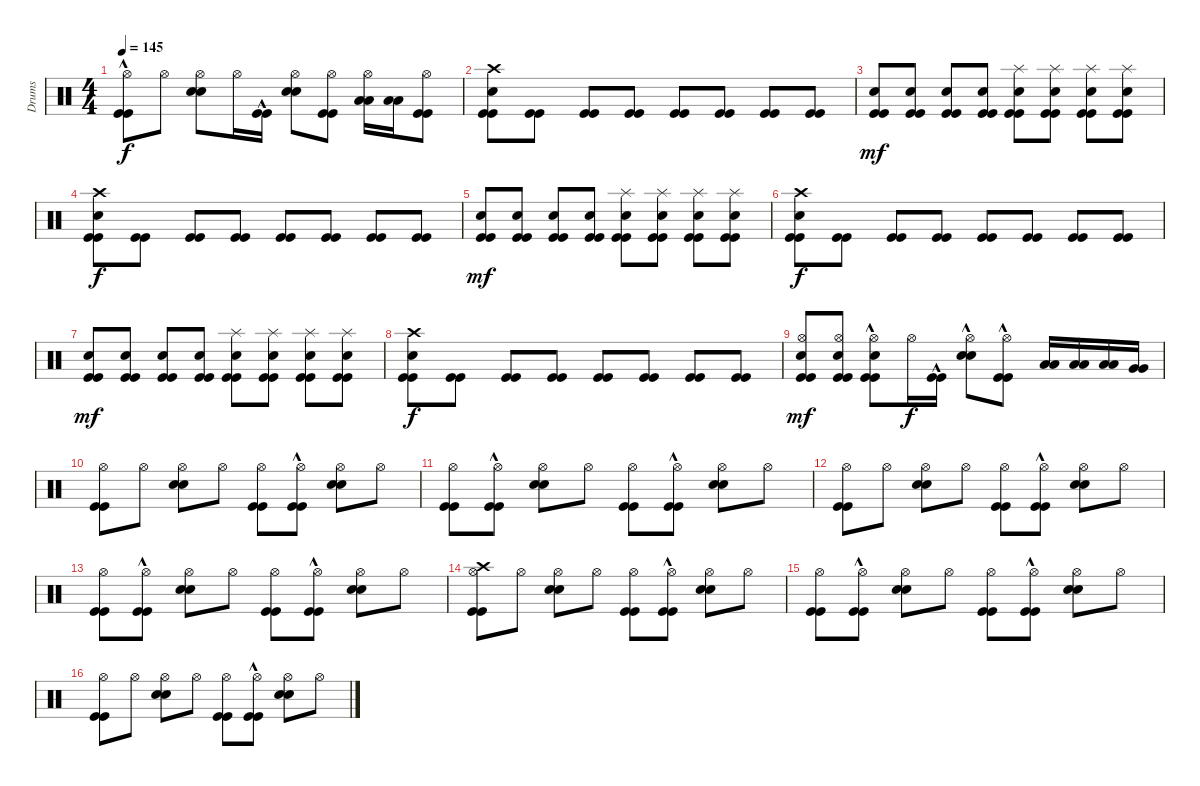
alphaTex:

\track ("Drums" "Drums") {instrument percussion}
\staff {score}
\articulation defaults
\ts (4 4)
\tempo 145
\clef neutral
\ks c
("Kick (hit)"{hac} "Kick (hit)"{hac} "Hi-Hat (open)").8{dy f} "Hi-Hat (open)".8 ("Snare (hit) 2" "Snare (hit) 2" "Hi-Hat (open)").8 "Hi-Hat (open)".16 ("Kick (hit)"{hac} "Kick (hit)"{hac}).16 ("Snare (hit) 2" "Snare (hit) 2" "Hi-Hat (open)").8 ("Kick (hit)" "Kick (hit)" "Hi-Hat (open)").8 ("Low Tom (hit)" "Low Tom (hit)" "Hi-Hat (open)").16 ("Low Tom (hit)" "Low Tom (hit)").16 ("Kick (hit)" "Kick (hit)" "Hi-Hat (open)").8 |
("Kick (hit)" "Kick (hit)" "Snare (hit) 2" "Crash high (hit)").8 ("Kick (hit)" "Kick (hit)").8 ("Kick (hit)" "Kick (hit)").8 ("Kick (hit)" "Kick (hit)").8 ("Kick (hit)" "Kick (hit)").8 ("Kick (hit)" "Kick (hit)").8 ("Kick (hit)" "Kick (hit)").8 ("Kick (hit)" "Kick (hit)").8 |
("Kick (hit)" "Kick (hit)" "Snare (hit) 2").8{dy mf} ("Kick (hit)" "Kick (hit)" "Snare (hit) 2").8 ("Kick (hit)" "Kick (hit)" "Snare (hit) 2").8 ("Kick (hit)" "Kick (hit)" "Snare (hit) 2").8 ("Kick (hit)" "Kick (hit)" "Snare (hit) 2" "Splash (hit)").8 ("Kick (hit)" "Kick (hit)" "Snare (hit) 2" "Splash (hit)").8 ("Kick (hit)" "Kick (hit)" "Snare (hit) 2" "Splash (hit)").8 ("Kick (hit)" "Kick (hit)" "Snare (hit) 2" "Splash (hit)").8 |
("Kick (hit)" "Kick (hit)" "Snare (hit) 2" "Crash high (hit)").8{dy f} ("Kick (hit)" "Kick (hit)").8 ("Kick (hit)" "Kick (hit)").8 ("Kick (hit)" "Kick (hit)").8 ("Kick (hit)" "Kick (hit)").8 ("Kick (hit)" "Kick (hit)").8 ("Kick (hit)" "Kick (hit)").8 ("Kick (hit)" "Kick (hit)").8 |
("Kick (hit)" "Kick (hit)" "Snare (hit) 2").8{dy mf} ("Kick (hit)" "Kick (hit)" "Snare (hit) 2").8 ("Kick (hit)" "Kick (hit)" "Snare (hit) 2").8 ("Kick (hit)" "Kick (hit)" "Snare (hit) 2").8 ("Kick (hit)" "Kick (hit)" "Snare (hit) 2" "Splash (hit)").8 ("Kick (hit)" "Kick (hit)" "Snare (hit) 2" "Splash (hit)").8 ("Kick (hit)" "Kick (hit)" "Snare (hit) 2" "Splash (hit)").8 ("Kick (hit)" "Kick (hit)" "Snare (hit) 2" "Splash (hit)").8 |
("Kick (hit)" "Kick (hit)" "Snare (hit) 2" "Crash high (hit)").8{dy f} ("Kick (hit)" "Kick (hit)").8 ("Kick (hit)" "Kick (hit)").8 ("Kick (hit)" "Kick (hit)").8 ("Kick (hit)" "Kick (hit)").8 ("Kick (hit)" "Kick (hit)").8 ("Kick (hit)" "Kick (hit)").8 ("Kick (hit)" "Kick (hit)").8 |
("Kick (hit)" "Kick (hit)" "Snare (hit) 2").8{dy mf} ("Kick (hit)" "Kick (hit)" "Snare (hit) 2").8 ("Kick (hit)" "Kick (hit)" "Snare (hit) 2").8 ("Kick (hit)" "Kick (hit)" "Snare (hit) 2").8 ("Kick (hit)" "Kick (hit)" "Snare (hit) 2" "Splash (hit)").8 ("Kick (hit)" "Kick (hit)" "Snare (hit) 2" "Splash (hit)").8 ("Kick (hit)" "Kick (hit)" "Snare (hit) 2" "Splash (hit)").8 ("Kick (hit)" "Kick (hit)" "Snare (hit) 2" "Splash (hit)").8 |
("Kick (hit)" "Kick (hit)" "Snare (hit) 2" "Crash high (hit)").8{dy f} ("Kick (hit)" "Kick (hit)").8 ("Kick (hit)" "Kick (hit)").8 ("Kick (hit)" "Kick (hit)").8 ("Kick (hit)" "Kick (hit)").8 ("Kick (hit)" "Kick (hit)").8 ("Kick (hit)" "Kick (hit)").8 ("Kick (hit)" "Kick (hit)").8 |
("Kick (hit)" "Kick (hit)" "Snare (hit) 2" "Hi-Hat (open)").8{dy mf} ("Kick (hit)" "Kick (hit)" "Snare (hit) 2" "Hi-Hat (open)").8 ("Kick (hit)"{hac} "Kick (hit)"{hac} "Snare (hit) 2" "Hi-Hat (open)").8 "Hi-Hat (open)".16{dy f} ("Kick (hit)"{hac} "Kick (hit)"{hac}).16 ("Snare (hit) 2"{hac} "Snare (hit) 2"{hac} "Hi-Hat (open)").8 ("Kick (hit)"{hac} "Kick (hit)"{hac} "Hi-Hat (open)"{hac}).8 ("Low Tom (hit)" "Low Tom (hit)").16 ("Low Tom (hit)" "Low Tom (hit)").16 ("Low Tom (hit)" "Low Tom (hit)").16 ("Very Low Tom (hit)" "Very Low Tom (hit)").16 |
("Kick (hit)" "Kick (hit)" "Hi-Hat (open)").8 "Hi-Hat (open)".8 ("Snare (hit) 2" "Snare (hit) 2" "Hi-Hat (open)").8 "Hi-Hat (open)".8 ("Kick (hit)" "Kick (hit)" "Hi-Hat (open)").8 ("Kick (hit)"{hac} "Kick (hit)"{hac} "Hi-Hat (open)").8 ("Snare (hit) 2" "Snare (hit) 2" "Hi-Hat (open)").8 "Hi-Hat (open)".8 |
("Kick (hit)" "Kick (hit)" "Hi-Hat (open)").8 ("Kick (hit)"{hac} "Kick (hit)"{hac} "Hi-Hat (open)").8 ("Snare (hit) 2" "Snare (hit) 2" "Hi-Hat (open)").8 "Hi-Hat (open)".8 ("Kick (hit)" "Kick (hit)" "Hi-Hat (open)").8 ("Kick (hit)"{hac} "Kick (hit)"{hac} "Hi-Hat (open)").8 ("Snare (hit) 2" "Snare (hit) 2" "Hi-Hat (open)").8 "Hi-Hat (open)".8 |
("Kick (hit)" "Kick (hit)" "Hi-Hat (open)").8 "Hi-Hat (open)".8 ("Snare (hit) 2" "Snare (hit) 2" "Hi-Hat (open)").8 "Hi-Hat (open)".8 ("Kick (hit)" "Kick (hit)" "Hi-Hat (open)").8 ("Kick (hit)"{hac} "Kick (hit)"{hac} "Hi-Hat (open)").8 ("Snare (hit) 2" "Snare (hit) 2" "Hi-Hat (open)").8 "Hi-Hat (open)".8 |
("Kick (hit)" "Kick (hit)" "Hi-Hat (open)").8 ("Kick (hit)"{hac} "Kick (hit)"{hac} "Hi-Hat (open)").8 ("Snare (hit) 2" "Snare (hit) 2" "Hi-Hat (open)").8 "Hi-Hat (open)".8 ("Kick (hit)" "Kick (hit)" "Hi-Hat (open)").8 ("Kick (hit)"{hac} "Kick (hit)"{hac} "Hi-Hat (open)").8 ("Snare (hit) 2" "Snare (hit) 2" "Hi-Hat (open)").8 "Hi-Hat (open)".8 |
("Kick (hit)" "Kick (hit)" "Hi-Hat (open)" "Crash high (hit)").8 "Hi-Hat (open)".8 ("Snare (hit) 2" "Snare (hit) 2" "Hi-Hat (open)").8 "Hi-Hat (open)".8 ("Kick (hit)" "Kick (hit)" "Hi-Hat (open)").8 ("Kick (hit)"{hac} "Kick (hit)"{hac} "Hi-Hat (open)").8 ("Snare (hit) 2" "Snare (hit) 2" "Hi-Hat (open)").8 "Hi-Hat (open)".8 |
("Kick (hit)" "Kick (hit)" "Hi-Hat (open)").8 ("Kick (hit)"{hac} "Kick (hit)"{hac} "Hi-Hat (open)").8 ("Snare (hit) 2" "Snare (hit) 2" "Hi-Hat (open)").8 "Hi-Hat (open)".8 ("Kick (hit)" "Kick (hit)" "Hi-Hat (open)").8 ("Kick (hit)"{hac} "Kick (hit)"{hac} "Hi-Hat (open)").8 ("Snare (hit) 2" "Snare (hit) 2" "Hi-Hat (open)").8 "Hi-Hat (open)".8 |
("Kick (hit)" "Kick (hit)" "Hi-Hat (open)").8 "Hi-Hat (open)".8 ("Snare (hit) 2" "Snare (hit) 2" "Hi-Hat (open)").8 "Hi-Hat (open)".8 ("Kick (hit)" "Kick (hit)" "Hi-Hat (open)").8 ("Kick (hit)"{hac} "Kick (hit)"{hac} "Hi-Hat (open)").8 ("Snare (hit) 2" "Snare (hit) 2" "Hi-Hat (open)").8 "Hi-Hat (open)".8
